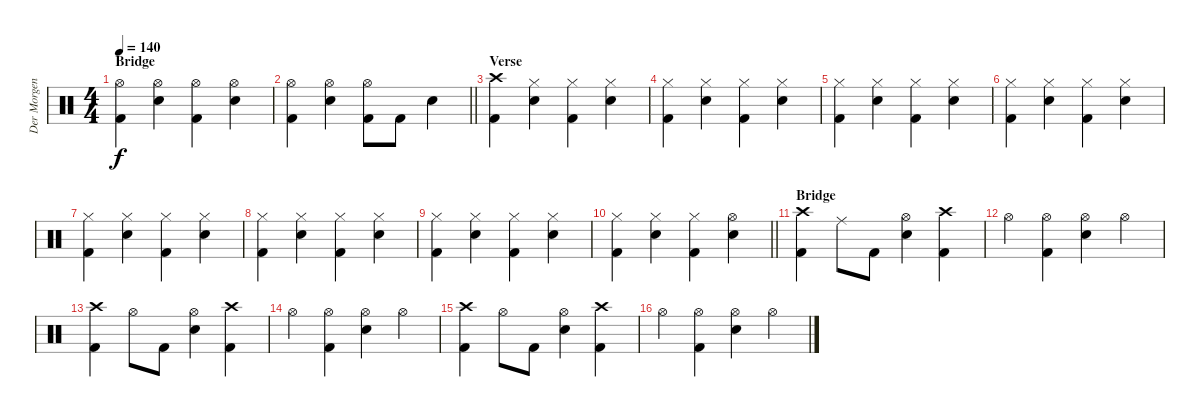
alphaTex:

\track ("Der Morgenstern" "Der Morgen") {instrument percussion}
\staff {score}
\articulation defaults
\ts (4 4)
\section ("" "Bridge")
\tempo 140
\clef neutral
\ks c
("Hi-Hat (open)" "Kick (hit) 2").4{dy f} ("Hi-Hat (open)" "Snare (hit) 2").4 ("Hi-Hat (open)" "Kick (hit) 2").4 ("Hi-Hat (open)" "Snare (hit) 2").4 |
\barLineRight lightlight
("Hi-Hat (open)" "Kick (hit) 2").4 ("Hi-Hat (open)" "Snare (hit) 2").4 ("Hi-Hat (open)" "Kick (hit) 2").8 "Kick (hit) 2".8 "Snare (hit) 2".4 |
\section ("" "Verse")
("Crash high (hit)" "Kick (hit) 2").4 ("Hi-Hat (closed)" "Snare (hit) 2").4 ("Hi-Hat (closed)" "Kick (hit) 2").4 ("Hi-Hat (closed)" "Snare (hit) 2").4 |
("Hi-Hat (closed)" "Kick (hit) 2").4 ("Hi-Hat (closed)" "Snare (hit) 2").4 ("Hi-Hat (closed)" "Kick (hit) 2").4 ("Hi-Hat (closed)" "Snare (hit) 2").4 |
("Hi-Hat (closed)" "Kick (hit) 2").4 ("Hi-Hat (closed)" "Snare (hit) 2").4 ("Hi-Hat (closed)" "Kick (hit) 2").4 ("Hi-Hat (closed)" "Snare (hit) 2").4 |
("Hi-Hat (closed)" "Kick (hit) 2").4 ("Hi-Hat (closed)" "Snare (hit) 2").4 ("Hi-Hat (closed)" "Kick (hit) 2").4 ("Hi-Hat (closed)" "Snare (hit) 2").4 |
("Hi-Hat (closed)" "Kick (hit) 2").4 ("Hi-Hat (closed)" "Snare (hit) 2").4 ("Hi-Hat (closed)" "Kick (hit) 2").4 ("Hi-Hat (closed)" "Snare (hit) 2").4 |
("Hi-Hat (closed)" "Kick (hit) 2").4 ("Hi-Hat (closed)" "Snare (hit) 2").4 ("Hi-Hat (closed)" "Kick (hit) 2").4 ("Hi-Hat (closed)" "Snare (hit) 2").4 |
("Hi-Hat (closed)" "Kick (hit) 2").4 ("Hi-Hat (closed)" "Snare (hit) 2").4 ("Hi-Hat (closed)" "Kick (hit) 2").4 ("Hi-Hat (closed)" "Snare (hit) 2").4 |
\barLineRight lightlight
("Hi-Hat (closed)" "Kick (hit) 2").4 ("Hi-Hat (closed)" "Snare (hit) 2").4 ("Hi-Hat (closed)" "Kick (hit) 2").4 ("Hi-Hat (open)" "Snare (hit) 2").4 |
\section ("" "Bridge")
("Crash high (hit)" "Kick (hit) 2").4 "Ride (middle)".8 "Kick (hit) 2".8 ("Hi-Hat (open)" "Snare (hit) 2").4 ("Crash high (hit)" "Kick (hit) 2").4 |
"Hi-Hat (open)".4 ("Hi-Hat (open)" "Kick (hit) 2").4 ("Hi-Hat (open)" "Snare (hit) 2").4 "Hi-Hat (open)".4 |
("Crash high (hit)" "Kick (hit) 2").4 "Hi-Hat (open)".8 "Kick (hit) 2".8 ("Hi-Hat (open)" "Snare (hit) 2").4 ("Crash high (hit)" "Kick (hit) 2").4 |
"Hi-Hat (open)".4 ("Hi-Hat (open)" "Kick (hit) 2").4 ("Hi-Hat (open)" "Snare (hit) 2").4 "Hi-Hat (open)".4 |
("Crash high (hit)" "Kick (hit) 2").4 "Hi-Hat (open)".8 "Kick (hit) 2".8 ("Hi-Hat (open)" "Snare (hit) 2").4 ("Crash high (hit)" "Kick (hit) 2").4 |
"Hi-Hat (open)".4 ("Hi-Hat (open)" "Kick (hit) 2").4 ("Hi-Hat (open)" "Snare (hit) 2").4 "Hi-Hat (open)".4
